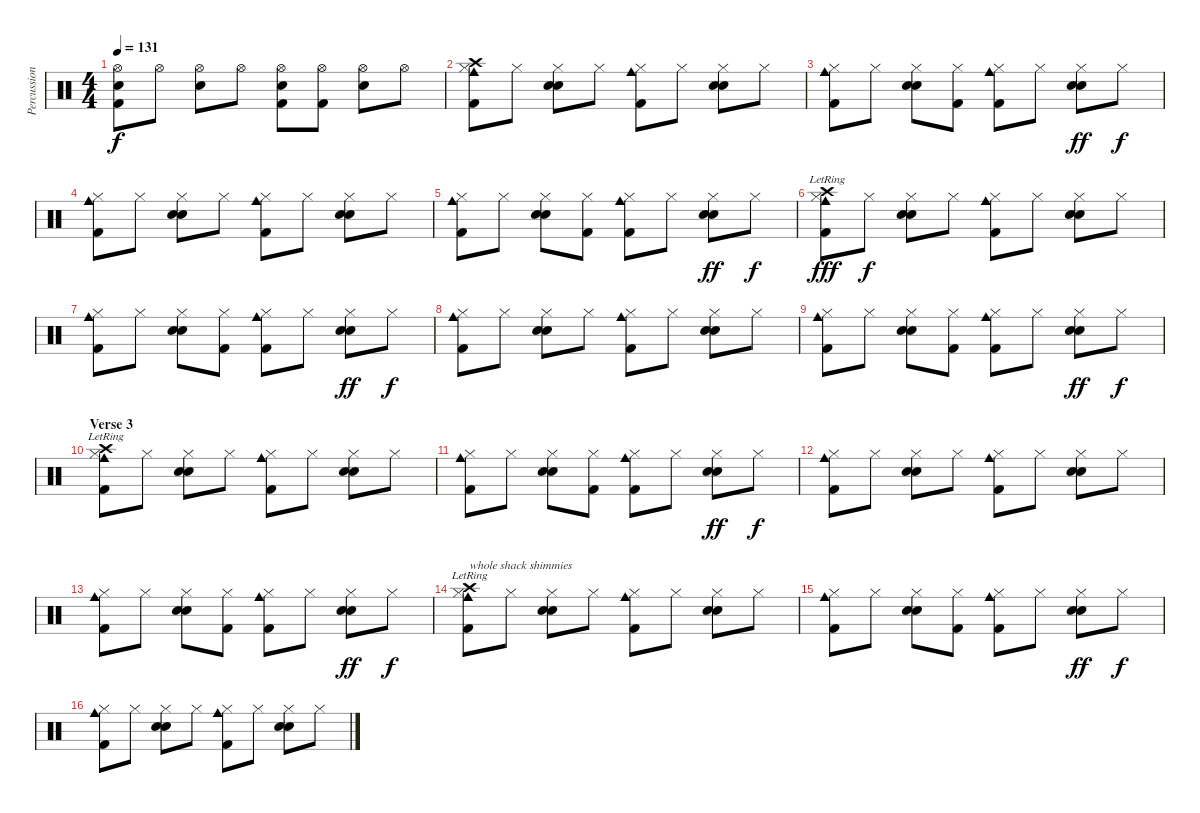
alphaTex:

\track ("Percussion" "Percussion") {instrument percussion}
\staff {score}
\articulation defaults
\ts (4 4)
\tempo 131
\clef neutral
\ks c
("Hi-Hat (open)" "Electric Snare (hit)" "Kick (hit) 2").8{dy f} "Hi-Hat (open)".8 ("Hi-Hat (open)" "Electric Snare (hit)").8 "Hi-Hat (open)".8 ("Hi-Hat (open)" "Electric Snare (hit)" "Kick (hit) 2").8 ("Hi-Hat (open)" "Kick (hit) 2").8 ("Hi-Hat (open)" "Electric Snare (hit)").8 "Hi-Hat (open)".8 |
("Crash high (hit)" "Hi-Hat (closed)" "Cowbell medium (hit)" "Kick (hit) 2").8 "Hi-Hat (closed)".8 ("Hand Clap (hit)" "Hi-Hat (closed)" "Electric Snare (hit)").8 "Hi-Hat (closed)".8 ("Hi-Hat (closed)" "Cowbell medium (hit)" "Kick (hit) 2").8 "Hi-Hat (closed)".8 ("Hand Clap (hit)" "Hi-Hat (closed)" "Electric Snare (hit)").8 "Hi-Hat (closed)".8 |
("Hi-Hat (closed)" "Cowbell medium (hit)" "Kick (hit) 2").8 "Hi-Hat (closed)".8 ("Hand Clap (hit)" "Hi-Hat (closed)" "Electric Snare (hit)").8 ("Hi-Hat (closed)" "Kick (hit) 2").8 ("Hi-Hat (closed)" "Cowbell medium (hit)" "Kick (hit) 2").8 "Hi-Hat (closed)".8 ("Hand Clap (hit)" "Hi-Hat (closed)" "Electric Snare (hit)").8{dy ff} "Hi-Hat (closed)".8{dy f} |
("Hi-Hat (closed)" "Cowbell medium (hit)" "Kick (hit) 2").8 "Hi-Hat (closed)".8 ("Hand Clap (hit)" "Hi-Hat (closed)" "Electric Snare (hit)").8 "Hi-Hat (closed)".8 ("Hi-Hat (closed)" "Cowbell medium (hit)" "Kick (hit) 2").8 "Hi-Hat (closed)".8 ("Hand Clap (hit)" "Hi-Hat (closed)" "Electric Snare (hit)").8 "Hi-Hat (closed)".8 |
("Hi-Hat (closed)" "Cowbell medium (hit)" "Kick (hit) 2").8 "Hi-Hat (closed)".8 ("Hand Clap (hit)" "Hi-Hat (closed)" "Electric Snare (hit)").8 ("Hi-Hat (closed)" "Kick (hit) 2").8 ("Hi-Hat (closed)" "Cowbell medium (hit)" "Kick (hit) 2").8 "Hi-Hat (closed)".8 ("Hand Clap (hit)" "Hi-Hat (closed)" "Electric Snare (hit)").8{dy ff} "Hi-Hat (closed)".8{dy f} |
("Hi-Hat (closed)" "Crash high (hit)"{lr} "Cowbell medium (hit)" "Kick (hit) 2").8{dy fff} "Hi-Hat (closed)".8{dy f} ("Hand Clap (hit)" "Hi-Hat (closed)" "Electric Snare (hit)").8 "Hi-Hat (closed)".8 ("Hi-Hat (closed)" "Cowbell medium (hit)" "Kick (hit) 2").8 "Hi-Hat (closed)".8 ("Hand Clap (hit)" "Hi-Hat (closed)" "Electric Snare (hit)").8 "Hi-Hat (closed)".8 |
("Hi-Hat (closed)" "Cowbell medium (hit)" "Kick (hit) 2").8 "Hi-Hat (closed)".8 ("Hand Clap (hit)" "Hi-Hat (closed)" "Electric Snare (hit)").8 ("Hi-Hat (closed)" "Kick (hit) 2").8 ("Hi-Hat (closed)" "Cowbell medium (hit)" "Kick (hit) 2").8 "Hi-Hat (closed)".8 ("Hand Clap (hit)" "Hi-Hat (closed)" "Electric Snare (hit)").8{dy ff} "Hi-Hat (closed)".8{dy f} |
("Hi-Hat (closed)" "Cowbell medium (hit)" "Kick (hit) 2").8 "Hi-Hat (closed)".8 ("Hand Clap (hit)" "Hi-Hat (closed)" "Electric Snare (hit)").8 "Hi-Hat (closed)".8 ("Hi-Hat (closed)" "Cowbell medium (hit)" "Kick (hit) 2").8 "Hi-Hat (closed)".8 ("Hand Clap (hit)" "Hi-Hat (closed)" "Electric Snare (hit)").8 "Hi-Hat (closed)".8 |
("Hi-Hat (closed)" "Cowbell medium (hit)" "Kick (hit) 2").8 "Hi-Hat (closed)".8 ("Hand Clap (hit)" "Hi-Hat (closed)" "Electric Snare (hit)").8 ("Hi-Hat (closed)" "Kick (hit) 2").8 ("Hi-Hat (closed)" "Cowbell medium (hit)" "Kick (hit) 2").8 "Hi-Hat (closed)".8 ("Hand Clap (hit)" "Hi-Hat (closed)" "Electric Snare (hit)").8{dy ff} "Hi-Hat (closed)".8{dy f} |
\section ("" "Verse 3")
("Crash high (hit)"{lr} "Hi-Hat (closed)" "Cowbell medium (hit)" "Kick (hit) 2").8 "Hi-Hat (closed)".8 ("Hand Clap (hit)" "Hi-Hat (closed)" "Electric Snare (hit)").8 "Hi-Hat (closed)".8 ("Hi-Hat (closed)" "Cowbell medium (hit)" "Kick (hit) 2").8 "Hi-Hat (closed)".8 ("Hand Clap (hit)" "Hi-Hat (closed)" "Electric Snare (hit)").8 "Hi-Hat (closed)".8 |
("Hi-Hat (closed)" "Cowbell medium (hit)" "Kick (hit) 2").8 "Hi-Hat (closed)".8 ("Hand Clap (hit)" "Hi-Hat (closed)" "Electric Snare (hit)").8 ("Hi-Hat (closed)" "Kick (hit) 2").8 ("Hi-Hat (closed)" "Cowbell medium (hit)" "Kick (hit) 2").8 "Hi-Hat (closed)".8 ("Hand Clap (hit)" "Hi-Hat (closed)" "Electric Snare (hit)").8{dy ff} "Hi-Hat (closed)".8{dy f} |
("Hi-Hat (closed)" "Cowbell medium (hit)" "Kick (hit) 2").8 "Hi-Hat (closed)".8 ("Hand Clap (hit)" "Hi-Hat (closed)" "Electric Snare (hit)").8 "Hi-Hat (closed)".8 ("Hi-Hat (closed)" "Cowbell medium (hit)" "Kick (hit) 2").8 "Hi-Hat (closed)".8 ("Hand Clap (hit)" "Hi-Hat (closed)" "Electric Snare (hit)").8 "Hi-Hat (closed)".8 |
("Hi-Hat (closed)" "Cowbell medium (hit)" "Kick (hit) 2").8 "Hi-Hat (closed)".8 ("Hand Clap (hit)" "Hi-Hat (closed)" "Electric Snare (hit)").8 ("Hi-Hat (closed)" "Kick (hit) 2").8 ("Hi-Hat (closed)" "Cowbell medium (hit)" "Kick (hit) 2").8 "Hi-Hat (closed)".8 ("Hand Clap (hit)" "Hi-Hat (closed)" "Electric Snare (hit)").8{dy ff} "Hi-Hat (closed)".8{dy f} |
("Crash high (hit)"{lr} "Hi-Hat (closed)" "Cowbell medium (hit)" "Kick (hit) 2").8{txt "whole shack shimmies"} "Hi-Hat (closed)".8 ("Hand Clap (hit)" "Hi-Hat (closed)" "Electric Snare (hit)").8 "Hi-Hat (closed)".8 ("Hi-Hat (closed)" "Cowbell medium (hit)" "Kick (hit) 2").8 "Hi-Hat (closed)".8 ("Hand Clap (hit)" "Hi-Hat (closed)" "Electric Snare (hit)").8 "Hi-Hat (closed)".8 |
("Hi-Hat (closed)" "Cowbell medium (hit)" "Kick (hit) 2").8 "Hi-Hat (closed)".8 ("Hand Clap (hit)" "Hi-Hat (closed)" "Electric Snare (hit)").8 ("Hi-Hat (closed)" "Kick (hit) 2").8 ("Hi-Hat (closed)" "Cowbell medium (hit)" "Kick (hit) 2").8 "Hi-Hat (closed)".8 ("Hand Clap (hit)" "Hi-Hat (closed)" "Electric Snare (hit)").8{dy ff} "Hi-Hat (closed)".8{dy f} |
("Hi-Hat (closed)" "Cowbell medium (hit)" "Kick (hit) 2").8 "Hi-Hat (closed)".8 ("Hand Clap (hit)" "Hi-Hat (closed)" "Electric Snare (hit)").8 "Hi-Hat (closed)".8 ("Hi-Hat (closed)" "Cowbell medium (hit)" "Kick (hit) 2").8 "Hi-Hat (closed)".8 ("Hand Clap (hit)" "Hi-Hat (closed)" "Electric Snare (hit)").8 "Hi-Hat (closed)".8
